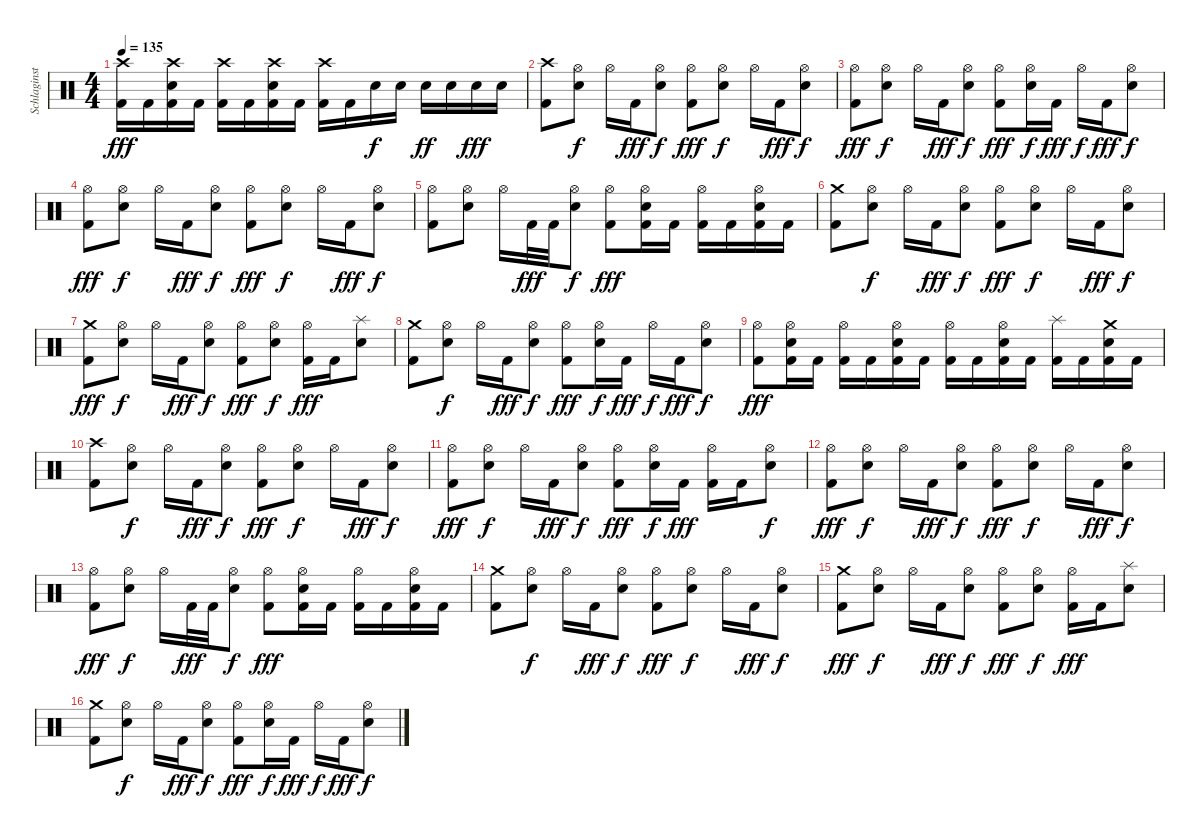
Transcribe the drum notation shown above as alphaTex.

\track ("Schlaginstrumente - Auswahl" "Schlaginst") {instrument percussion}
\staff {score}
\articulation defaults
\ts (4 4)
\tempo 135
\clef neutral
\ks c
("Crash high (hit)" "Kick (hit) 2").16{dy fff} "Kick (hit) 2".16 ("Crash high (hit)" "Snare (hit) 2" "Kick (hit) 2").16 "Kick (hit) 2".16 ("Crash high (hit)" "Kick (hit) 2").16 "Kick (hit) 2".16 ("Crash high (hit)" "Snare (hit) 2" "Kick (hit) 2").16 "Kick (hit) 2".16 ("Crash high (hit)" "Kick (hit) 2").16 "Kick (hit) 2".16 "Snare (hit) 2".16{dy f} "Snare (hit) 2".16 "Snare (hit) 2".16{dy ff} "Snare (hit) 2".16 "Snare (hit) 2".16{dy fff} "Snare (hit) 2".16 |
("Crash high (hit)" "Kick (hit) 2").8 ("Hi-Hat (open)" "Snare (hit) 2").8{dy f} "Hi-Hat (open)".16 "Kick (hit) 2".16{dy fff} ("Hi-Hat (open)" "Snare (hit) 2").8{dy f} ("Hi-Hat (open)" "Kick (hit) 2").8{dy fff} ("Hi-Hat (open)" "Snare (hit) 2").8{dy f} "Hi-Hat (open)".16 "Kick (hit) 2".16{dy fff} ("Hi-Hat (open)" "Snare (hit) 2").8{dy f} |
("Hi-Hat (open)" "Kick (hit) 2").8{dy fff} ("Hi-Hat (open)" "Snare (hit) 2").8{dy f} "Hi-Hat (open)".16 "Kick (hit) 2".16{dy fff} ("Hi-Hat (open)" "Snare (hit) 2").8{dy f} ("Hi-Hat (open)" "Kick (hit) 2").8{dy fff} ("Hi-Hat (open)" "Snare (hit) 2").16{dy f} "Kick (hit) 2".16{dy fff} "Hi-Hat (open)".16{dy f} "Kick (hit) 2".16{dy fff} ("Hi-Hat (open)" "Snare (hit) 2").8{dy f} |
("Hi-Hat (open)" "Kick (hit) 2").8{dy fff} ("Hi-Hat (open)" "Snare (hit) 2").8{dy f} "Hi-Hat (open)".16 "Kick (hit) 2".16{dy fff} ("Hi-Hat (open)" "Snare (hit) 2").8{dy f} ("Hi-Hat (open)" "Kick (hit) 2").8{dy fff} ("Hi-Hat (open)" "Snare (hit) 2").8{dy f} "Hi-Hat (open)".16 "Kick (hit) 2".16{dy fff} ("Hi-Hat (open)" "Snare (hit) 2").8{dy f} |
("Hi-Hat (open)" "Kick (hit) 2").8 ("Hi-Hat (open)" "Snare (hit) 2").8 "Hi-Hat (open)".16 "Kick (hit) 2".32{dy fff} "Kick (hit) 2".32 ("Hi-Hat (open)" "Snare (hit) 2").8{dy f} ("Hi-Hat (open)" "Kick (hit) 2").8{dy fff} ("Hi-Hat (open)" "Snare (hit) 2" "Kick (hit) 2").16 "Kick (hit) 2".16 ("Hi-Hat (open)" "Kick (hit) 2").16 "Kick (hit) 2".16 ("Hi-Hat (open)" "Snare (hit) 2" "Kick (hit) 2").16 "Kick (hit) 2".16 |
("Crash medium (hit)" "Kick (hit) 2").8 ("Hi-Hat (open)" "Snare (hit) 2").8{dy f} "Hi-Hat (open)".16 "Kick (hit) 2".16{dy fff} ("Hi-Hat (open)" "Snare (hit) 2").8{dy f} ("Hi-Hat (open)" "Kick (hit) 2").8{dy fff} ("Hi-Hat (open)" "Snare (hit) 2").8{dy f} "Hi-Hat (open)".16 "Kick (hit) 2".16{dy fff} ("Hi-Hat (open)" "Snare (hit) 2").8{dy f} |
("Crash medium (hit)" "Kick (hit) 2").8{dy fff} ("Hi-Hat (open)" "Snare (hit) 2").8{dy f} "Hi-Hat (open)".16 "Kick (hit) 2".16{dy fff} ("Hi-Hat (open)" "Snare (hit) 2").8{dy f} ("Hi-Hat (open)" "Kick (hit) 2").8{dy fff} ("Hi-Hat (open)" "Snare (hit) 2").8{dy f} ("Hi-Hat (open)" "Kick (hit) 2").16{dy fff} "Kick (hit) 2".16 ("Splash (hit)" "Snare (hit) 2").8 |
("Crash medium (hit)" "Kick (hit) 2").8 ("Hi-Hat (open)" "Snare (hit) 2").8{dy f} "Hi-Hat (open)".16 "Kick (hit) 2".16{dy fff} ("Hi-Hat (open)" "Snare (hit) 2").8{dy f} ("Hi-Hat (open)" "Kick (hit) 2").8{dy fff} ("Hi-Hat (open)" "Snare (hit) 2").16{dy f} "Kick (hit) 2".16{dy fff} "Hi-Hat (open)".16{dy f} "Kick (hit) 2".16{dy fff} ("Hi-Hat (open)" "Snare (hit) 2").8{dy f} |
("Hi-Hat (open)" "Kick (hit) 2").8{dy fff} ("Hi-Hat (open)" "Snare (hit) 2" "Kick (hit) 2").16 "Kick (hit) 2".16 ("Hi-Hat (open)" "Kick (hit) 2").16 "Kick (hit) 2".16 ("Hi-Hat (open)" "Snare (hit) 2" "Kick (hit) 2").16 "Kick (hit) 2".16 ("Hi-Hat (open)" "Kick (hit) 2").16 "Kick (hit) 2".16 ("Hi-Hat (open)" "Snare (hit) 2" "Kick (hit) 2").16 "Kick (hit) 2".16 ("Splash (hit)" "Kick (hit) 2").16 "Kick (hit) 2".16 ("Crash medium (hit)" "Snare (hit) 2" "Kick (hit) 2").16 "Kick (hit) 2".16 |
("Crash high (hit)" "Kick (hit) 2").8 ("Hi-Hat (open)" "Snare (hit) 2").8{dy f} "Hi-Hat (open)".16 "Kick (hit) 2".16{dy fff} ("Hi-Hat (open)" "Snare (hit) 2").8{dy f} ("Hi-Hat (open)" "Kick (hit) 2").8{dy fff} ("Hi-Hat (open)" "Snare (hit) 2").8{dy f} "Hi-Hat (open)".16 "Kick (hit) 2".16{dy fff} ("Hi-Hat (open)" "Snare (hit) 2").8{dy f} |
("Hi-Hat (open)" "Kick (hit) 2").8{dy fff} ("Hi-Hat (open)" "Snare (hit) 2").8{dy f} "Hi-Hat (open)".16 "Kick (hit) 2".16{dy fff} ("Hi-Hat (open)" "Snare (hit) 2").8{dy f} ("Hi-Hat (open)" "Kick (hit) 2").8{dy fff} ("Hi-Hat (open)" "Snare (hit) 2").16{dy f} "Kick (hit) 2".16{dy fff} ("Hi-Hat (open)" "Kick (hit) 2").16 "Kick (hit) 2".16 ("Hi-Hat (open)" "Snare (hit) 2").8{dy f} |
("Hi-Hat (open)" "Kick (hit) 2").8{dy fff} ("Hi-Hat (open)" "Snare (hit) 2").8{dy f} "Hi-Hat (open)".16 "Kick (hit) 2".16{dy fff} ("Hi-Hat (open)" "Snare (hit) 2").8{dy f} ("Hi-Hat (open)" "Kick (hit) 2").8{dy fff} ("Hi-Hat (open)" "Snare (hit) 2").8{dy f} "Hi-Hat (open)".16 "Kick (hit) 2".16{dy fff} ("Hi-Hat (open)" "Snare (hit) 2").8{dy f} |
("Hi-Hat (open)" "Kick (hit) 2").8{dy fff} ("Hi-Hat (open)" "Snare (hit) 2").8{dy f} "Hi-Hat (open)".16 "Kick (hit) 2".32{dy fff} "Kick (hit) 2".32 ("Hi-Hat (open)" "Snare (hit) 2").8{dy f} ("Hi-Hat (open)" "Kick (hit) 2").8{dy fff} ("Hi-Hat (open)" "Snare (hit) 2" "Kick (hit) 2").16 "Kick (hit) 2".16 ("Hi-Hat (open)" "Kick (hit) 2").16 "Kick (hit) 2".16 ("Hi-Hat (open)" "Snare (hit) 2" "Kick (hit) 2").16 "Kick (hit) 2".16 |
("Crash medium (hit)" "Kick (hit) 2").8 ("Hi-Hat (open)" "Snare (hit) 2").8{dy f} "Hi-Hat (open)".16 "Kick (hit) 2".16{dy fff} ("Hi-Hat (open)" "Snare (hit) 2").8{dy f} ("Hi-Hat (open)" "Kick (hit) 2").8{dy fff} ("Hi-Hat (open)" "Snare (hit) 2").8{dy f} "Hi-Hat (open)".16 "Kick (hit) 2".16{dy fff} ("Hi-Hat (open)" "Snare (hit) 2").8{dy f} |
("Crash medium (hit)" "Kick (hit) 2").8{dy fff} ("Hi-Hat (open)" "Snare (hit) 2").8{dy f} "Hi-Hat (open)".16 "Kick (hit) 2".16{dy fff} ("Hi-Hat (open)" "Snare (hit) 2").8{dy f} ("Hi-Hat (open)" "Kick (hit) 2").8{dy fff} ("Hi-Hat (open)" "Snare (hit) 2").8{dy f} ("Hi-Hat (open)" "Kick (hit) 2").16{dy fff} "Kick (hit) 2".16 ("Splash (hit)" "Snare (hit) 2").8 |
("Crash medium (hit)" "Kick (hit) 2").8 ("Hi-Hat (open)" "Snare (hit) 2").8{dy f} "Hi-Hat (open)".16 "Kick (hit) 2".16{dy fff} ("Hi-Hat (open)" "Snare (hit) 2").8{dy f} ("Hi-Hat (open)" "Kick (hit) 2").8{dy fff} ("Hi-Hat (open)" "Snare (hit) 2").16{dy f} "Kick (hit) 2".16{dy fff} "Hi-Hat (open)".16{dy f} "Kick (hit) 2".16{dy fff} ("Hi-Hat (open)" "Snare (hit) 2").8{dy f}
